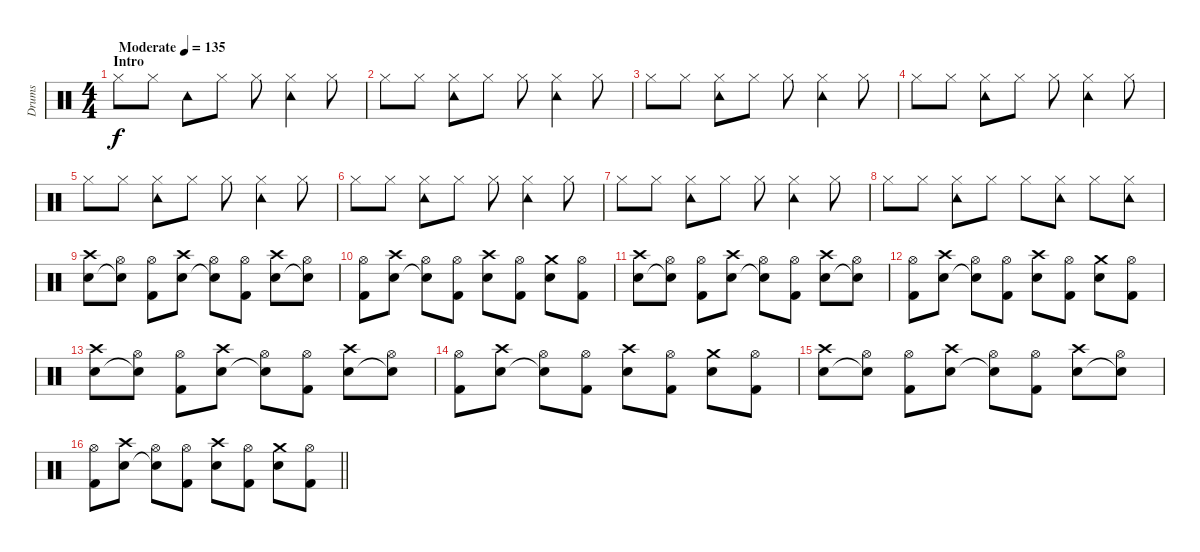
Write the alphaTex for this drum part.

\track ("Drums" "Drums") {instrument percussion}
\staff {score}
\articulation defaults
\ts (4 4)
\section ("" "Intro")
\tempo (135 "Moderate")
\clef neutral
\ks c "Hi-Hat (closed)".8{dy f volume 7} "Hi-Hat (closed)".8 "Tambourine (hit)".8 "Hi-Hat (closed)".8 "Hi-Hat (closed)".8
("Hi-Hat (closed)" "Tambourine (hit)").4 "Hi-Hat (closed)".8 |
"Hi-Hat (closed)".8 "Hi-Hat (closed)".8 ("Hi-Hat (closed)" "Tambourine (hit)").8 "Hi-Hat (closed)".8 "Hi-Hat (closed)".8 ("Hi-Hat (closed)" "Tambourine (hit)").4 "Hi-Hat (closed)".8 |
"Hi-Hat (closed)".8 "Hi-Hat (closed)".8 ("Hi-Hat (closed)" "Tambourine (hit)").8 "Hi-Hat (closed)".8 "Hi-Hat (closed)".8 ("Hi-Hat (closed)" "Tambourine (hit)").4 "Hi-Hat (closed)".8 |
"Hi-Hat (closed)".8 "Hi-Hat (closed)".8 ("Hi-Hat (closed)" "Tambourine (hit)").8 "Hi-Hat (closed)".8 "Hi-Hat (closed)".8 ("Hi-Hat (closed)" "Tambourine (hit)").4 "Hi-Hat (closed)".8 |
"Hi-Hat (closed)".8 "Hi-Hat (closed)".8 ("Hi-Hat (closed)" "Tambourine (hit)").8 "Hi-Hat (closed)".8 "Hi-Hat (closed)".8 ("Hi-Hat (closed)" "Tambourine (hit)").4 "Hi-Hat (closed)".8 |
"Hi-Hat (closed)".8 "Hi-Hat (closed)".8 ("Hi-Hat (closed)" "Tambourine (hit)").8 "Hi-Hat (closed)".8 "Hi-Hat (closed)".8 ("Hi-Hat (closed)" "Tambourine (hit)").4 "Hi-Hat (closed)".8 |
"Hi-Hat (closed)".8 "Hi-Hat (closed)".8 ("Hi-Hat (closed)" "Tambourine (hit)").8 "Hi-Hat (closed)".8 "Hi-Hat (closed)".8 ("Hi-Hat (closed)" "Tambourine (hit)").4 "Hi-Hat (closed)".8 |
"Hi-Hat (closed)".8 "Hi-Hat (closed)".8 ("Hi-Hat (closed)" "Tambourine (hit)").8 "Hi-Hat (closed)".8 "Hi-Hat (closed)".8 ("Hi-Hat (closed)" "Tambourine (hit)").8 "Hi-Hat (closed)".8 ("Hi-Hat (closed)" "Tambourine (hit)").8 |
("Crash high (hit)" "Snare (hit) 2").8{volume 11} ("Hi-Hat (open)" "Snare (hit) 2"{t}).8 ("Hi-Hat (open)" "Kick (hit) 2").8 ("Crash high (hit)" "Snare (hit) 2").8 ("Hi-Hat (open)" "Snare (hit) 2"{t}).8 ("Hi-Hat (open)" "Kick (hit) 2").8 ("Crash high (hit)" "Snare (hit) 2").8 ("Hi-Hat (open)" "Snare (hit) 2"{t}).8 |
("Hi-Hat (open)" "Kick (hit) 2").8 ("Crash high (hit)" "Snare (hit) 2").8 ("Hi-Hat (open)" "Snare (hit) 2"{t}).8 ("Hi-Hat (open)" "Kick (hit) 2").8 ("Crash high (hit)" "Snare (hit) 2").8 ("Hi-Hat (open)" "Kick (hit) 2").8 ("Crash medium (hit)" "Snare (hit) 2").8 ("Hi-Hat (open)" "Kick (hit) 2").8 |
("Crash high (hit)" "Snare (hit) 2").8 ("Hi-Hat (open)" "Snare (hit) 2"{t}).8 ("Hi-Hat (open)" "Kick (hit) 2").8 ("Crash high (hit)" "Snare (hit) 2").8 ("Hi-Hat (open)" "Snare (hit) 2"{t}).8 ("Hi-Hat (open)" "Kick (hit) 2").8 ("Crash high (hit)" "Snare (hit) 2").8 ("Hi-Hat (open)" "Snare (hit) 2"{t}).8 |
("Hi-Hat (open)" "Kick (hit) 2").8 ("Crash high (hit)" "Snare (hit) 2").8 ("Hi-Hat (open)" "Snare (hit) 2"{t}).8 ("Hi-Hat (open)" "Kick (hit) 2").8 ("Crash high (hit)" "Snare (hit) 2").8 ("Hi-Hat (open)" "Kick (hit) 2").8 ("Crash medium (hit)" "Snare (hit) 2").8 ("Hi-Hat (open)" "Kick (hit) 2").8 |
("Crash high (hit)" "Snare (hit) 2").8 ("Hi-Hat (open)" "Snare (hit) 2"{t}).8 ("Hi-Hat (open)" "Kick (hit) 2").8 ("Crash high (hit)" "Snare (hit) 2").8 ("Hi-Hat (open)" "Snare (hit) 2"{t}).8 ("Hi-Hat (open)" "Kick (hit) 2").8 ("Crash high (hit)" "Snare (hit) 2").8 ("Hi-Hat (open)" "Snare (hit) 2"{t}).8 |
("Hi-Hat (open)" "Kick (hit) 2").8 ("Crash high (hit)" "Snare (hit) 2").8 ("Hi-Hat (open)" "Snare (hit) 2"{t}).8 ("Hi-Hat (open)" "Kick (hit) 2").8 ("Crash high (hit)" "Snare (hit) 2").8 ("Hi-Hat (open)" "Kick (hit) 2").8 ("Crash medium (hit)" "Snare (hit) 2").8 ("Hi-Hat (open)" "Kick (hit) 2").8 |
("Crash high (hit)" "Snare (hit) 2").8 ("Hi-Hat (open)" "Snare (hit) 2"{t}).8 ("Hi-Hat (open)" "Kick (hit) 2").8 ("Crash high (hit)" "Snare (hit) 2").8 ("Hi-Hat (open)" "Snare (hit) 2"{t}).8 ("Hi-Hat (open)" "Kick (hit) 2").8 ("Crash high (hit)" "Snare (hit) 2").8 ("Hi-Hat (open)" "Snare (hit) 2"{t}).8 |
\barLineRight lightlight
("Hi-Hat (open)" "Kick (hit) 2").8 ("Crash high (hit)" "Snare (hit) 2").8 ("Hi-Hat (open)" "Snare (hit) 2"{t}).8 ("Hi-Hat (open)" "Kick (hit) 2").8 ("Crash high (hit)" "Snare (hit) 2").8 ("Hi-Hat (open)" "Kick (hit) 2").8 ("Crash medium (hit)" "Snare (hit) 2").8 ("Hi-Hat (open)" "Kick (hit) 2").8
